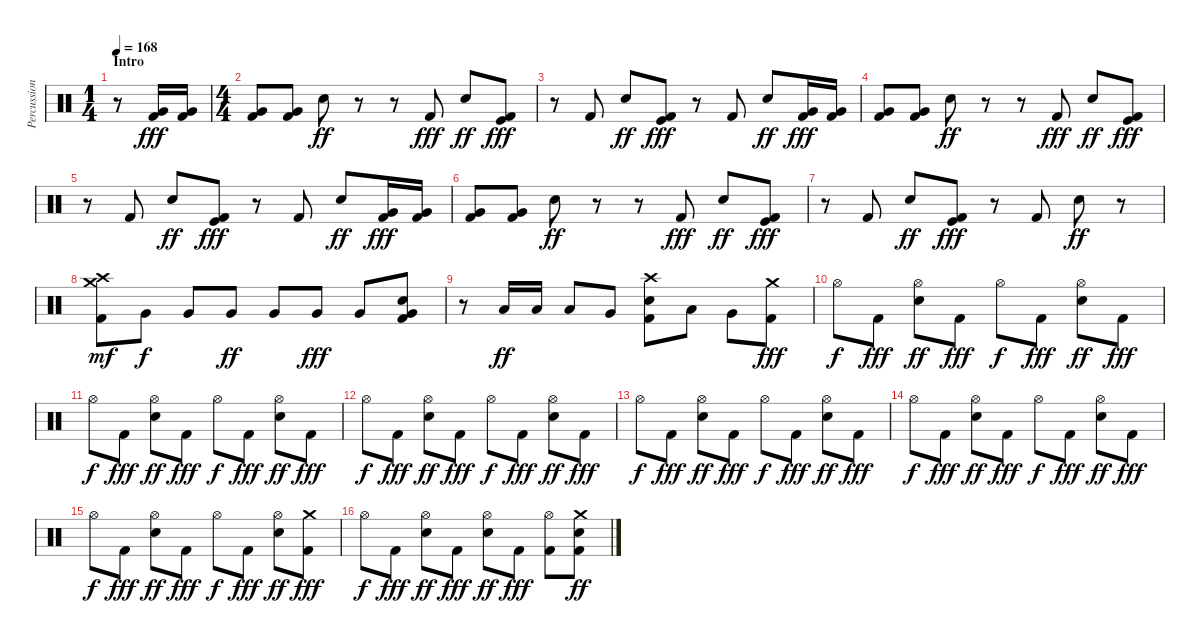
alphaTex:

\track ("Percussion" "Percussion") {instrument percussion}
\staff {score}
\articulation defaults
\ts (1 4)
\section ("" "Intro")
\tempo 168
\clef neutral
\ks c
r.8{dy fff} ("Very Low Tom (hit)" "Kick (hit) 2").16 ("Very Low Tom (hit)" "Kick (hit) 2").16 |
\ts (4 4)
("Very Low Tom (hit)" "Kick (hit) 2").8 ("Very Low Tom (hit)" "Kick (hit) 2").8 "Electric Snare (hit)".8{dy ff} r.8 r.8 "Kick (hit) 2".8{dy fff} "Electric Snare (hit)".8{dy ff} ("Kick (hit)" "Kick (hit) 2").8{dy fff} |
r.8 "Kick (hit) 2".8 "Electric Snare (hit)".8{dy ff} ("Kick (hit)" "Kick (hit) 2").8{dy fff} r.8 "Kick (hit) 2".8 "Electric Snare (hit)".8{dy ff} ("Very Low Tom (hit)" "Kick (hit) 2").16{dy fff} ("Very Low Tom (hit)" "Kick (hit) 2").16 |
("Very Low Tom (hit)" "Kick (hit) 2").8 ("Very Low Tom (hit)" "Kick (hit) 2").8 "Electric Snare (hit)".8{dy ff} r.8 r.8 "Kick (hit) 2".8{dy fff} "Electric Snare (hit)".8{dy ff} ("Kick (hit)" "Kick (hit) 2").8{dy fff} |
r.8 "Kick (hit) 2".8 "Electric Snare (hit)".8{dy ff} ("Kick (hit)" "Kick (hit) 2").8{dy fff} r.8 "Kick (hit) 2".8 "Electric Snare (hit)".8{dy ff} ("Very Low Tom (hit)" "Kick (hit) 2").16{dy fff} ("Very Low Tom (hit)" "Kick (hit) 2").16 |
("Very Low Tom (hit)" "Kick (hit) 2").8 ("Very Low Tom (hit)" "Kick (hit) 2").8 "Electric Snare (hit)".8{dy ff} r.8 r.8 "Kick (hit) 2".8{dy fff} "Electric Snare (hit)".8{dy ff} ("Kick (hit)" "Kick (hit) 2").8{dy fff} |
r.8 "Kick (hit) 2".8 "Electric Snare (hit)".8{dy ff} ("Kick (hit)" "Kick (hit) 2").8{dy fff} r.8 "Kick (hit) 2".8 "Electric Snare (hit)".8{dy ff} r.8 |
("Crash medium (hit)" "Crash high (hit)" "Kick (hit) 2").8{dy mf} "Very Low Tom (hit)".8{dy f} "Very Low Tom (hit)".8 "Very Low Tom (hit)".8{dy ff} "Very Low Tom (hit)".8 "Very Low Tom (hit)".8{dy fff} "Very Low Tom (hit)".8 ("Electric Snare (hit)" "Kick (hit) 2" "Very Low Tom (hit)").8 |
r.8 "Low Tom (hit)".16{dy ff} "Low Tom (hit)".16 "Low Tom (hit)".8 "Very Low Tom (hit)".8 ("Crash high (hit)" "Electric Snare (hit)" "Kick (hit) 2").8 "Low Tom (hit)".8 "Very Low Tom (hit)".8 ("Crash medium (hit)" "Kick (hit) 2").8{dy fff} |
"Hi-Hat (open)".8{dy f} "Kick (hit) 2".8{dy fff} ("Hi-Hat (open)" "Electric Snare (hit)").8{dy ff} "Kick (hit) 2".8{dy fff} "Hi-Hat (open)".8{dy f} "Kick (hit) 2".8{dy fff} ("Hi-Hat (open)" "Electric Snare (hit)").8{dy ff} "Kick (hit) 2".8{dy fff} |
"Hi-Hat (open)".8{dy f} "Kick (hit) 2".8{dy fff} ("Hi-Hat (open)" "Electric Snare (hit)").8{dy ff} "Kick (hit) 2".8{dy fff} "Hi-Hat (open)".8{dy f} "Kick (hit) 2".8{dy fff} ("Hi-Hat (open)" "Electric Snare (hit)").8{dy ff} "Kick (hit) 2".8{dy fff} |
"Hi-Hat (open)".8{dy f} "Kick (hit) 2".8{dy fff} ("Hi-Hat (open)" "Electric Snare (hit)").8{dy ff} "Kick (hit) 2".8{dy fff} "Hi-Hat (open)".8{dy f} "Kick (hit) 2".8{dy fff} ("Hi-Hat (open)" "Electric Snare (hit)").8{dy ff} "Kick (hit) 2".8{dy fff} |
"Hi-Hat (open)".8{dy f} "Kick (hit) 2".8{dy fff} ("Hi-Hat (open)" "Electric Snare (hit)").8{dy ff} "Kick (hit) 2".8{dy fff} "Hi-Hat (open)".8{dy f} "Kick (hit) 2".8{dy fff} ("Hi-Hat (open)" "Electric Snare (hit)").8{dy ff} "Kick (hit) 2".8{dy fff} |
"Hi-Hat (open)".8{dy f} "Kick (hit) 2".8{dy fff} ("Hi-Hat (open)" "Electric Snare (hit)").8{dy ff} "Kick (hit) 2".8{dy fff} "Hi-Hat (open)".8{dy f} "Kick (hit) 2".8{dy fff} ("Hi-Hat (open)" "Electric Snare (hit)").8{dy ff} "Kick (hit) 2".8{dy fff} |
"Hi-Hat (open)".8{dy f} "Kick (hit) 2".8{dy fff} ("Hi-Hat (open)" "Electric Snare (hit)").8{dy ff} "Kick (hit) 2".8{dy fff} "Hi-Hat (open)".8{dy f} "Kick (hit) 2".8{dy fff} ("Hi-Hat (open)" "Electric Snare (hit)").8{dy ff} ("Crash medium (hit)" "Kick (hit) 2").8{dy fff} |
"Hi-Hat (open)".8{dy f} "Kick (hit) 2".8{dy fff} ("Hi-Hat (open)" "Electric Snare (hit)").8{dy ff} "Kick (hit) 2".8{dy fff} ("Hi-Hat (open)" "Electric Snare (hit)").8{dy ff} "Kick (hit) 2".8{dy fff} ("Hi-Hat (open)" "Kick (hit) 2").8 ("Crash medium (hit)" "Electric Snare (hit)" "Kick (hit) 2").8{dy ff}
